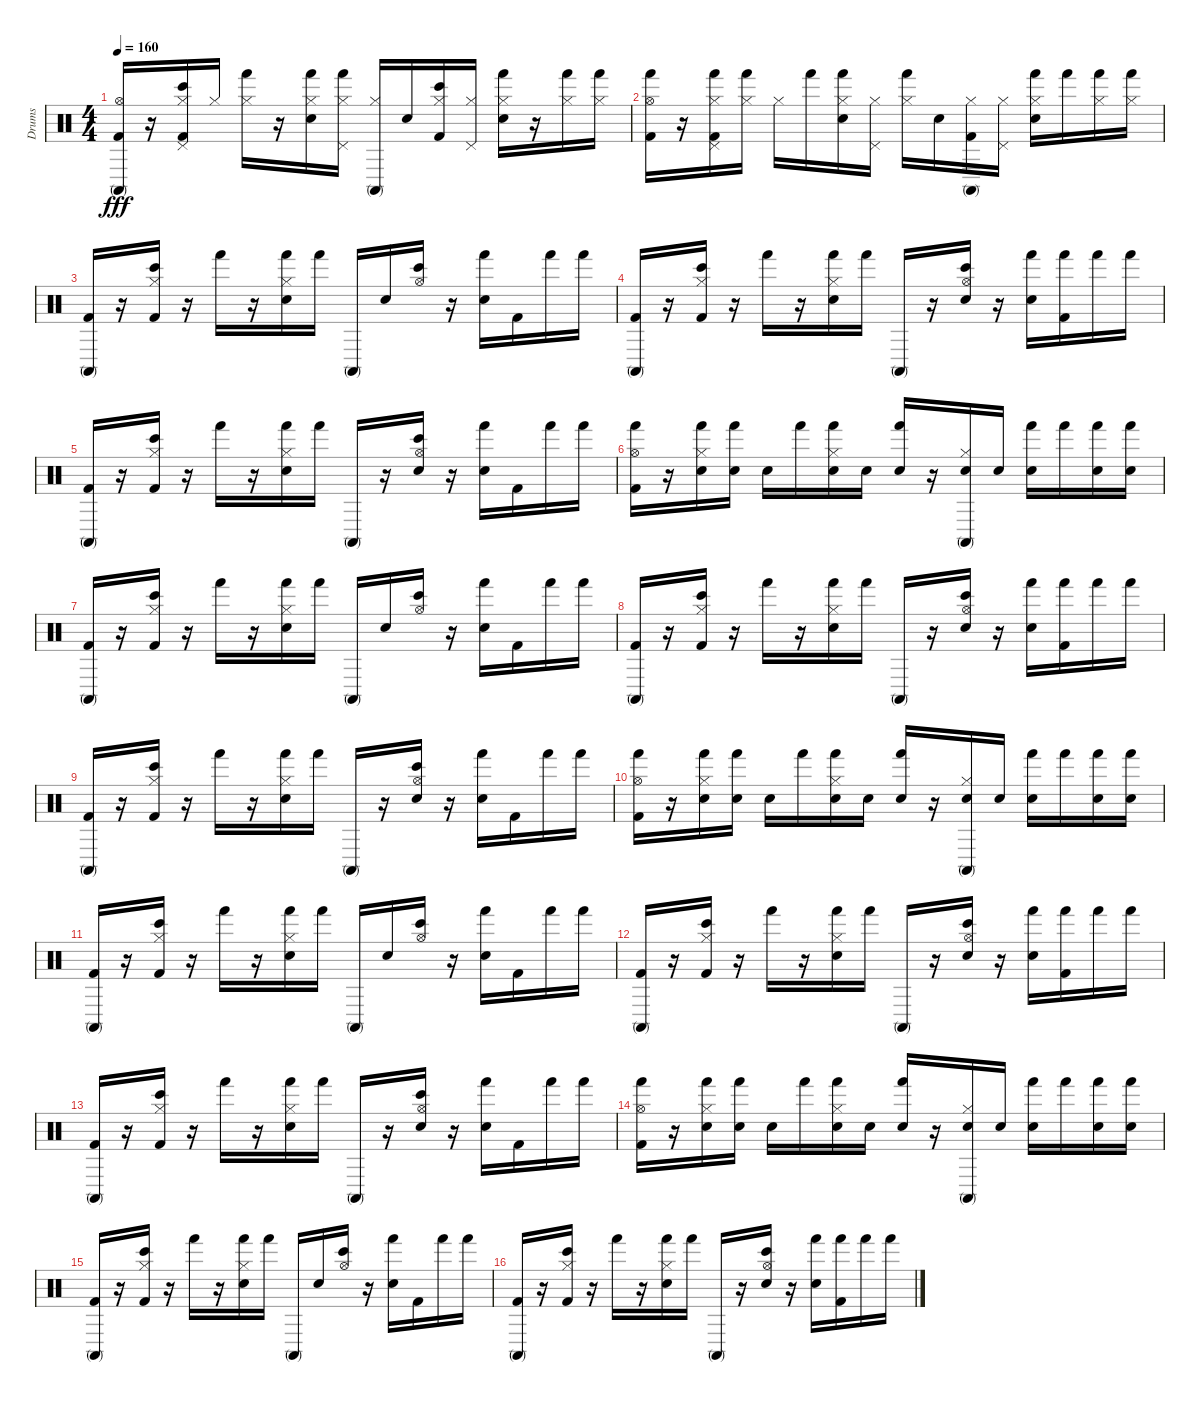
\track ("Drums" "Drums") {instrument percussion}
\staff {score}
\articulation defaults
\ts (4 4)
\tempo 160
\clef neutral
\ks c
("Hi-Hat (open)" "Kick (hit) 2" "Conga high (mute)").16{dy fff} r.16 ("Hi-Hat (closed)" "Pedal Hi-Hat (hit)" "Bongo High (hit)" "Kick (hit) 2").16 "Hi-Hat (closed)".16 ("Hi-Hat (closed)" "Hand (hit)").16 r.16 ("Electric Snare (hit)" "Hand (hit)" "Hi-Hat (closed)").16 ("Pedal Hi-Hat (hit)" "Hand (hit)" "Hi-Hat (closed)").16 ("Conga high (mute)" "Hi-Hat (closed)").16 "Electric Snare (hit)".16 ("Hi-Hat (closed)" "Bongo High (hit)" "Kick (hit) 2").16 ("Hi-Hat (closed)" "Pedal Hi-Hat (hit)").16 ("Electric Snare (hit)" "Hand (hit)" "Hi-Hat (closed)").16 r.16 ("Hand (hit)" "Hi-Hat (closed)").16 ("Hi-Hat (closed)" "Hand (hit)").16 |
("Hand (hit)" "Hi-Hat (open)" "Kick (hit) 2").16 r.16 ("Pedal Hi-Hat (hit)" "Hand (hit)" "Kick (hit) 2" "Hi-Hat (closed)").16 ("Hi-Hat (closed)" "Hand (hit)").16 "Hi-Hat (closed)".16 "Hand (hit)".16 ("Electric Snare (hit)" "Hi-Hat (closed)" "Hand (hit)").16 ("Hi-Hat (closed)" "Pedal Hi-Hat (hit)").16 ("Hi-Hat (closed)" "Hand (hit)").16 "Electric Snare (hit)".16 ("Hi-Hat (closed)" "Kick (hit) 2" "Conga high (mute)").16 ("Hi-Hat (closed)" "Pedal Hi-Hat (hit)").16 ("Electric Snare (hit)" "Hand (hit)" "Hi-Hat (closed)").16 "Hand (hit)".16 ("Hi-Hat (closed)" "Hand (hit)").16 ("Hi-Hat (closed)" "Hand (hit)").16 |
("Kick (hit) 2" "Conga high (mute)").16 r.16 ("Hi-Hat (closed)" "Bongo High (hit)" "Kick (hit) 2").16 r.16 "Hand (hit)".16 r.16 ("Electric Snare (hit)" "Hand (hit)" "Hi-Hat (closed)").16 "Hand (hit)".16 "Conga high (mute)".16 "Electric Snare (hit)".16 ("Bongo High (hit)" "Hi-Hat (open)").16 r.16 ("Electric Snare (hit)" "Hand (hit)").16 "Kick (hit) 2".16 "Hand (hit)".16 "Hand (hit)".16 |
("Conga high (mute)" "Kick (hit) 2").16 r.16 ("Hi-Hat (closed)" "Bongo High (hit)" "Kick (hit) 2").16 r.16 "Hand (hit)".16 r.16 ("Hand (hit)" "Electric Snare (hit)" "Hi-Hat (closed)").16 "Hand (hit)".16 "Conga high (mute)".16 r.16 ("Electric Snare (hit)" "Bongo High (hit)" "Hi-Hat (open)").16 r.16 ("Electric Snare (hit)" "Hand (hit)").16 ("Hand (hit)" "Kick (hit) 2").16 "Hand (hit)".16 "Hand (hit)".16 |
("Kick (hit) 2" "Conga high (mute)").16 r.16 ("Hi-Hat (closed)" "Bongo High (hit)" "Kick (hit) 2").16 r.16 "Hand (hit)".16 r.16 ("Hand (hit)" "Electric Snare (hit)" "Hi-Hat (closed)").16 "Hand (hit)".16 "Conga high (mute)".16 r.16 ("Hi-Hat (open)" "Bongo High (hit)" "Electric Snare (hit)").16 r.16 ("Electric Snare (hit)" "Hand (hit)").16 "Kick (hit) 2".16 "Hand (hit)".16 "Hand (hit)".16 |
("Hand (hit)" "Hi-Hat (open)" "Kick (hit) 2").16 r.16 ("Hi-Hat (closed)" "Hand (hit)" "Electric Snare (hit)").16 ("Electric Snare (hit)" "Hand (hit)").16 "Electric Snare (hit)".16 "Hand (hit)".16 ("Electric Snare (hit)" "Hand (hit)" "Hi-Hat (closed)").16 "Electric Snare (hit)".16 ("Hand (hit)" "Electric Snare (hit)").16 r.16 ("Electric Snare (hit)" "Hi-Hat (closed)" "Conga high (mute)").16 "Electric Snare (hit)".16 ("Electric Snare (hit)" "Hand (hit)").16 "Hand (hit)".16 ("Hand (hit)" "Electric Snare (hit)").16 ("Electric Snare (hit)" "Hand (hit)").16 |
("Conga high (mute)" "Kick (hit) 2").16 r.16 ("Kick (hit) 2" "Bongo High (hit)" "Hi-Hat (closed)").16 r.16 "Hand (hit)".16 r.16 ("Electric Snare (hit)" "Hand (hit)" "Hi-Hat (closed)").16 "Hand (hit)".16 "Conga high (mute)".16 "Electric Snare (hit)".16 ("Bongo High (hit)" "Hi-Hat (open)").16 r.16 ("Hand (hit)" "Electric Snare (hit)").16 "Kick (hit) 2".16 "Hand (hit)".16 "Hand (hit)".16 |
("Conga high (mute)" "Kick (hit) 2").16 r.16 ("Kick (hit) 2" "Hi-Hat (closed)" "Bongo High (hit)").16 r.16 "Hand (hit)".16 r.16 ("Electric Snare (hit)" "Hi-Hat (closed)" "Hand (hit)").16 "Hand (hit)".16 "Conga high (mute)".16 r.16 ("Bongo High (hit)" "Electric Snare (hit)" "Hi-Hat (open)").16 r.16 ("Hand (hit)" "Electric Snare (hit)").16 ("Hand (hit)" "Kick (hit) 2").16 "Hand (hit)".16 "Hand (hit)".16 |
("Kick (hit) 2" "Conga high (mute)").16 r.16 ("Bongo High (hit)" "Kick (hit) 2" "Hi-Hat (closed)").16 r.16 "Hand (hit)".16 r.16 ("Electric Snare (hit)" "Hi-Hat (closed)" "Hand (hit)").16 "Hand (hit)".16 "Conga high (mute)".16 r.16 ("Hi-Hat (open)" "Bongo High (hit)" "Electric Snare (hit)").16 r.16 ("Electric Snare (hit)" "Hand (hit)").16 "Kick (hit) 2".16 "Hand (hit)".16 "Hand (hit)".16 |
("Hi-Hat (open)" "Kick (hit) 2" "Hand (hit)").16 r.16 ("Hi-Hat (closed)" "Hand (hit)" "Electric Snare (hit)").16 ("Electric Snare (hit)" "Hand (hit)").16 "Electric Snare (hit)".16 "Hand (hit)".16 ("Hi-Hat (closed)" "Hand (hit)" "Electric Snare (hit)").16 "Electric Snare (hit)".16 ("Electric Snare (hit)" "Hand (hit)").16 r.16 ("Conga high (mute)" "Hi-Hat (closed)" "Electric Snare (hit)").16 "Electric Snare (hit)".16 ("Hand (hit)" "Electric Snare (hit)").16 "Hand (hit)".16 ("Hand (hit)" "Electric Snare (hit)").16 ("Electric Snare (hit)" "Hand (hit)").16 |
("Kick (hit) 2" "Conga high (mute)").16 r.16 ("Hi-Hat (closed)" "Kick (hit) 2" "Bongo High (hit)").16 r.16 "Hand (hit)".16 r.16 ("Hi-Hat (closed)" "Electric Snare (hit)" "Hand (hit)").16 "Hand (hit)".16 "Conga high (mute)".16 "Electric Snare (hit)".16 ("Hi-Hat (open)" "Bongo High (hit)").16 r.16 ("Electric Snare (hit)" "Hand (hit)").16 "Kick (hit) 2".16 "Hand (hit)".16 "Hand (hit)".16 |
("Kick (hit) 2" "Conga high (mute)").16 r.16 ("Bongo High (hit)" "Kick (hit) 2" "Hi-Hat (closed)").16 r.16 "Hand (hit)".16 r.16 ("Electric Snare (hit)" "Hi-Hat (closed)" "Hand (hit)").16 "Hand (hit)".16 "Conga high (mute)".16 r.16 ("Hi-Hat (open)" "Electric Snare (hit)" "Bongo High (hit)").16 r.16 ("Electric Snare (hit)" "Hand (hit)").16 ("Kick (hit) 2" "Hand (hit)").16 "Hand (hit)".16 "Hand (hit)".16 |
("Conga high (mute)" "Kick (hit) 2").16 r.16 ("Hi-Hat (closed)" "Kick (hit) 2" "Bongo High (hit)").16 r.16 "Hand (hit)".16 r.16 ("Hand (hit)" "Electric Snare (hit)" "Hi-Hat (closed)").16 "Hand (hit)".16 "Conga high (mute)".16 r.16 ("Electric Snare (hit)" "Bongo High (hit)" "Hi-Hat (open)").16 r.16 ("Hand (hit)" "Electric Snare (hit)").16 "Kick (hit) 2".16 "Hand (hit)".16 "Hand (hit)".16 |
("Kick (hit) 2" "Hand (hit)" "Hi-Hat (open)").16 r.16 ("Hi-Hat (closed)" "Hand (hit)" "Electric Snare (hit)").16 ("Hand (hit)" "Electric Snare (hit)").16 "Electric Snare (hit)".16 "Hand (hit)".16 ("Electric Snare (hit)" "Hand (hit)" "Hi-Hat (closed)").16 "Electric Snare (hit)".16 ("Hand (hit)" "Electric Snare (hit)").16 r.16 ("Conga high (mute)" "Electric Snare (hit)" "Hi-Hat (closed)").16 "Electric Snare (hit)".16 ("Electric Snare (hit)" "Hand (hit)").16 "Hand (hit)".16 ("Hand (hit)" "Electric Snare (hit)").16 ("Electric Snare (hit)" "Hand (hit)").16 |
("Conga high (mute)" "Kick (hit) 2").16 r.16 ("Kick (hit) 2" "Hi-Hat (closed)" "Bongo High (hit)").16 r.16 "Hand (hit)".16 r.16 ("Hi-Hat (closed)" "Hand (hit)" "Electric Snare (hit)").16 "Hand (hit)".16 "Conga high (mute)".16 "Electric Snare (hit)".16 ("Hi-Hat (open)" "Bongo High (hit)").16 r.16 ("Electric Snare (hit)" "Hand (hit)").16 "Kick (hit) 2".16 "Hand (hit)".16 "Hand (hit)".16 |
("Kick (hit) 2" "Conga high (mute)").16 r.16 ("Bongo High (hit)" "Kick (hit) 2" "Hi-Hat (closed)").16 r.16 "Hand (hit)".16 r.16 ("Electric Snare (hit)" "Hi-Hat (closed)" "Hand (hit)").16 "Hand (hit)".16 "Conga high (mute)".16 r.16 ("Bongo High (hit)" "Hi-Hat (open)" "Electric Snare (hit)").16 r.16 ("Hand (hit)" "Electric Snare (hit)").16 ("Kick (hit) 2" "Hand (hit)").16 "Hand (hit)".16 "Hand (hit)".16
